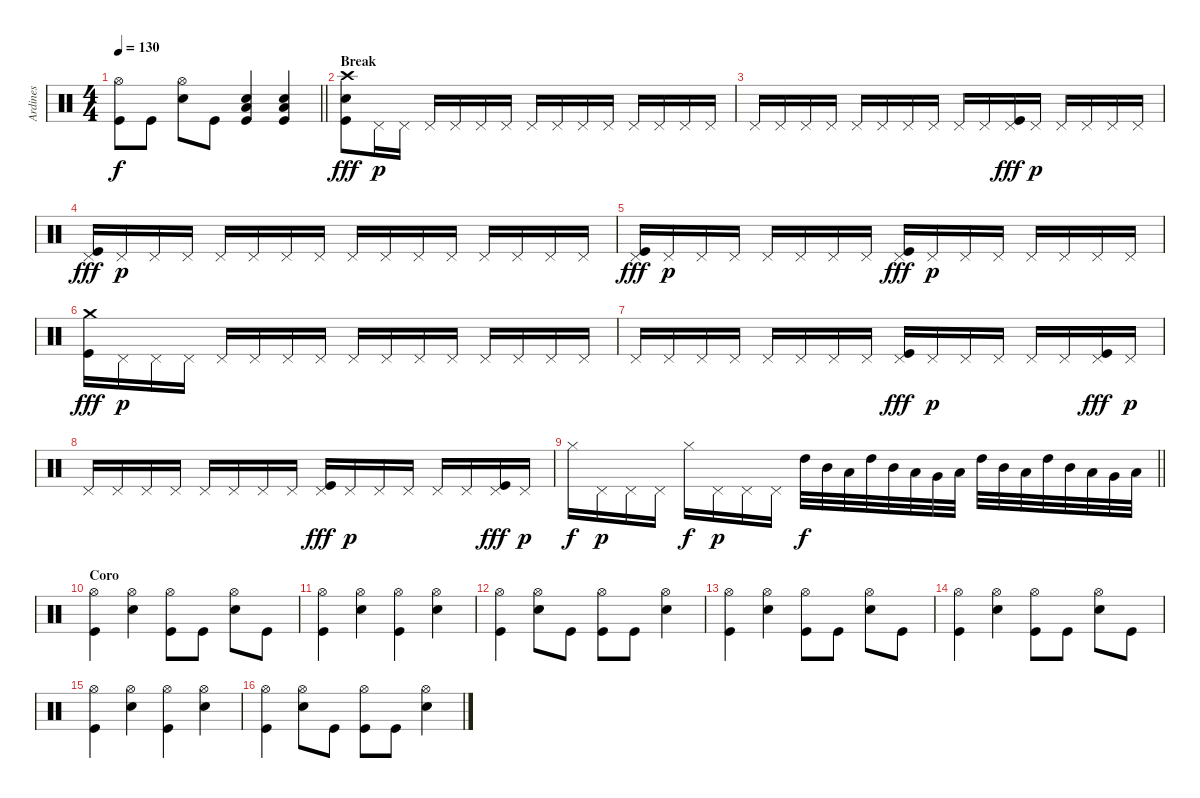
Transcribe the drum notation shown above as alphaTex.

\track ("Ardines" "Ardines") {instrument percussion}
\staff {score}
\articulation defaults
\ts (4 4)
\tempo 130
\clef neutral
\barLineRight lightlight
\ks c
("Hi-Hat (open)" "Kick (hit)").8{dy f} "Kick (hit)".8 ("Hi-Hat (open)" "Electric Snare (hit)").8 "Kick (hit)".8 ("Low Tom (hit)" "Electric Snare (hit)" "Kick (hit)").4 ("Low Tom (hit)" "Electric Snare (hit)" "Kick (hit)").4 |
\section ("" "Break")
("Crash high (hit)" "Electric Snare (hit)" "Kick (hit)").8{dy fff} "Pedal Hi-Hat (hit)".16{dy p} "Pedal Hi-Hat (hit)".16 "Pedal Hi-Hat (hit)".16 "Pedal Hi-Hat (hit)".16 "Pedal Hi-Hat (hit)".16 "Pedal Hi-Hat (hit)".16 "Pedal Hi-Hat (hit)".16 "Pedal Hi-Hat (hit)".16 "Pedal Hi-Hat (hit)".16 "Pedal Hi-Hat (hit)".16 "Pedal Hi-Hat (hit)".16 "Pedal Hi-Hat (hit)".16 "Pedal Hi-Hat (hit)".16 "Pedal Hi-Hat (hit)".16 |
"Pedal Hi-Hat (hit)".16 "Pedal Hi-Hat (hit)".16 "Pedal Hi-Hat (hit)".16 "Pedal Hi-Hat (hit)".16 "Pedal Hi-Hat (hit)".16 "Pedal Hi-Hat (hit)".16 "Pedal Hi-Hat (hit)".16 "Pedal Hi-Hat (hit)".16 "Pedal Hi-Hat (hit)".16 "Pedal Hi-Hat (hit)".16 ("Pedal Hi-Hat (hit)" "Kick (hit)").16{dy fff} "Pedal Hi-Hat (hit)".16{dy p} "Pedal Hi-Hat (hit)".16 "Pedal Hi-Hat (hit)".16 "Pedal Hi-Hat (hit)".16 "Pedal Hi-Hat (hit)".16 |
("Pedal Hi-Hat (hit)" "Kick (hit)").16{dy fff} "Pedal Hi-Hat (hit)".16{dy p} "Pedal Hi-Hat (hit)".16 "Pedal Hi-Hat (hit)".16 "Pedal Hi-Hat (hit)".16 "Pedal Hi-Hat (hit)".16 "Pedal Hi-Hat (hit)".16 "Pedal Hi-Hat (hit)".16 "Pedal Hi-Hat (hit)".16 "Pedal Hi-Hat (hit)".16 "Pedal Hi-Hat (hit)".16 "Pedal Hi-Hat (hit)".16 "Pedal Hi-Hat (hit)".16 "Pedal Hi-Hat (hit)".16 "Pedal Hi-Hat (hit)".16 "Pedal Hi-Hat (hit)".16 |
("Pedal Hi-Hat (hit)" "Kick (hit)").16{dy fff} "Pedal Hi-Hat (hit)".16{dy p} "Pedal Hi-Hat (hit)".16 "Pedal Hi-Hat (hit)".16 "Pedal Hi-Hat (hit)".16 "Pedal Hi-Hat (hit)".16 "Pedal Hi-Hat (hit)".16 "Pedal Hi-Hat (hit)".16 ("Pedal Hi-Hat (hit)" "Kick (hit)").16{dy fff} "Pedal Hi-Hat (hit)".16{dy p} "Pedal Hi-Hat (hit)".16 "Pedal Hi-Hat (hit)".16 "Pedal Hi-Hat (hit)".16 "Pedal Hi-Hat (hit)".16 "Pedal Hi-Hat (hit)".16 "Pedal Hi-Hat (hit)".16 |
("Crash medium (hit)" "Kick (hit)").16{dy fff} "Pedal Hi-Hat (hit)".16{dy p} "Pedal Hi-Hat (hit)".16 "Pedal Hi-Hat (hit)".16 "Pedal Hi-Hat (hit)".16 "Pedal Hi-Hat (hit)".16 "Pedal Hi-Hat (hit)".16 "Pedal Hi-Hat (hit)".16 "Pedal Hi-Hat (hit)".16 "Pedal Hi-Hat (hit)".16 "Pedal Hi-Hat (hit)".16 "Pedal Hi-Hat (hit)".16 "Pedal Hi-Hat (hit)".16 "Pedal Hi-Hat (hit)".16 "Pedal Hi-Hat (hit)".16 "Pedal Hi-Hat (hit)".16 |
"Pedal Hi-Hat (hit)".16 "Pedal Hi-Hat (hit)".16 "Pedal Hi-Hat (hit)".16 "Pedal Hi-Hat (hit)".16 "Pedal Hi-Hat (hit)".16 "Pedal Hi-Hat (hit)".16 "Pedal Hi-Hat (hit)".16 "Pedal Hi-Hat (hit)".16 ("Pedal Hi-Hat (hit)" "Kick (hit)").16{dy fff} "Pedal Hi-Hat (hit)".16{dy p} "Pedal Hi-Hat (hit)".16 "Pedal Hi-Hat (hit)".16 "Pedal Hi-Hat (hit)".16 "Pedal Hi-Hat (hit)".16 ("Pedal Hi-Hat (hit)" "Kick (hit)").16{dy fff} "Pedal Hi-Hat (hit)".16{dy p} |
"Pedal Hi-Hat (hit)".16 "Pedal Hi-Hat (hit)".16 "Pedal Hi-Hat (hit)".16 "Pedal Hi-Hat (hit)".16 "Pedal Hi-Hat (hit)".16 "Pedal Hi-Hat (hit)".16 "Pedal Hi-Hat (hit)".16 "Pedal Hi-Hat (hit)".16 ("Pedal Hi-Hat (hit)" "Kick (hit)").16{dy fff} "Pedal Hi-Hat (hit)".16{dy p} "Pedal Hi-Hat (hit)".16 "Pedal Hi-Hat (hit)".16 "Pedal Hi-Hat (hit)".16 "Pedal Hi-Hat (hit)".16 ("Pedal Hi-Hat (hit)" "Kick (hit)").16{dy fff} "Pedal Hi-Hat (hit)".16{dy p} |
\barLineRight lightlight "Hi-Hat (closed)".16{dy f} "Pedal Hi-Hat (hit)".16{dy p} "Pedal Hi-Hat (hit)".16 "Pedal Hi-Hat (hit)".16 "Hi-Hat (closed)".16{dy f} "Pedal Hi-Hat (hit)".16{dy p} "Pedal Hi-Hat (hit)".16 "Pedal Hi-Hat (hit)".16 "High Tom (hit)".32{dy f} "Mid Tom (hit)".32 "Low Tom (hit)".32 "High Tom (hit)".32 "Mid Tom (hit)".32 "Low Tom (hit)".32 "Very Low Tom (hit)".32 "Low Tom (hit)".32 "High Tom (hit)".32 "Mid Tom (hit)".32 "Low Tom (hit)".32 "High Tom (hit)".32 "Mid Tom (hit)".32 "Low Tom (hit)".32 "Very Low Tom (hit)".32 "Low Tom (hit)".32
|
\section ("" "Coro")
("Hi-Hat (open)" "Kick (hit)").4 ("Hi-Hat (open)" "Electric Snare (hit)").4 ("Hi-Hat (open)" "Kick (hit)").8 "Kick (hit)".8 ("Hi-Hat (open)" "Electric Snare (hit)").8 "Kick (hit)".8 |
("Hi-Hat (open)" "Kick (hit)").4 ("Hi-Hat (open)" "Electric Snare (hit)").4 ("Hi-Hat (open)" "Kick (hit)").4 ("Hi-Hat (open)" "Electric Snare (hit)").4 |
("Hi-Hat (open)" "Kick (hit)").4 ("Hi-Hat (open)" "Electric Snare (hit)").8 "Kick (hit)".8 ("Hi-Hat (open)" "Kick (hit)").8 "Kick (hit)".8 ("Hi-Hat (open)" "Electric Snare (hit)").4 |
("Hi-Hat (open)" "Kick (hit)").4 ("Hi-Hat (open)" "Electric Snare (hit)").4 ("Hi-Hat (open)" "Kick (hit)").8 "Kick (hit)".8 ("Hi-Hat (open)" "Electric Snare (hit)").8 "Kick (hit)".8 |
("Hi-Hat (open)" "Kick (hit)").4 ("Hi-Hat (open)" "Electric Snare (hit)").4 ("Hi-Hat (open)" "Kick (hit)").8 "Kick (hit)".8 ("Hi-Hat (open)" "Electric Snare (hit)").8 "Kick (hit)".8 |
("Hi-Hat (open)" "Kick (hit)").4 ("Hi-Hat (open)" "Electric Snare (hit)").4 ("Hi-Hat (open)" "Kick (hit)").4 ("Hi-Hat (open)" "Electric Snare (hit)").4 |
("Hi-Hat (open)" "Kick (hit)").4 ("Hi-Hat (open)" "Electric Snare (hit)").8 "Kick (hit)".8 ("Hi-Hat (open)" "Kick (hit)").8 "Kick (hit)".8 ("Hi-Hat (open)" "Electric Snare (hit)").4
